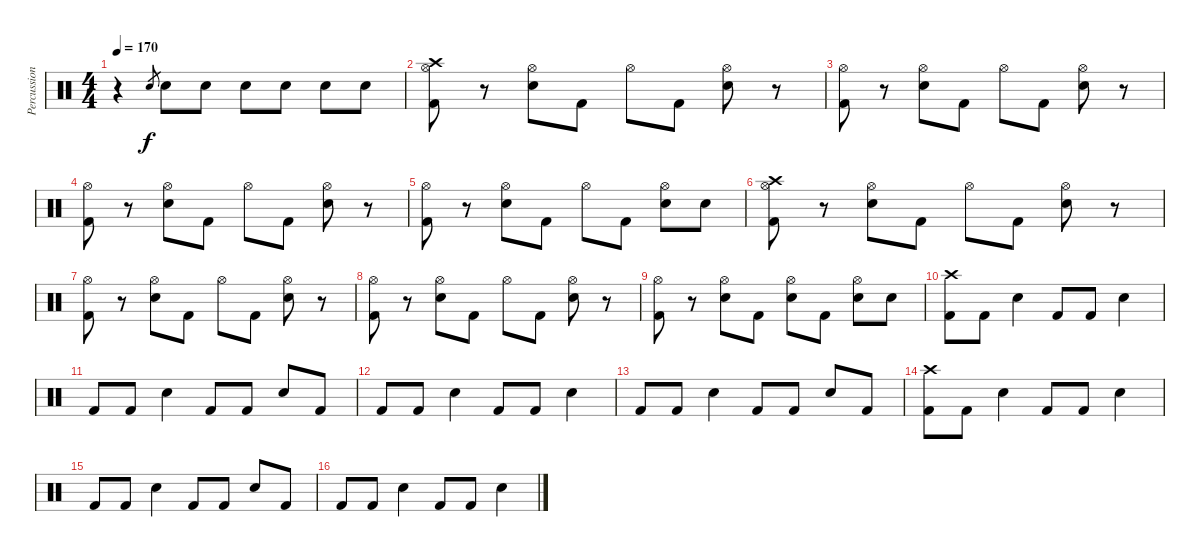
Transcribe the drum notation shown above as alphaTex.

\track ("Percussion" "Percussion") {instrument percussion}
\staff {score}
\articulation defaults
\ts (4 4)
\tempo 170
\clef neutral
\ks c
r.4{dy f} "Electric Snare (hit)".8{gr} "Electric Snare (hit)".8 "Electric Snare (hit)".8 "Electric Snare (hit)".8 "Electric Snare (hit)".8 "Electric Snare (hit)".8 "Electric Snare (hit)".8 |
("Hi-Hat (open)" "Crash high (hit)" "Kick (hit) 2").8 r.8 ("Hi-Hat (open)" "Electric Snare (hit)").8 "Kick (hit) 2".8 "Hi-Hat (open)".8 "Kick (hit) 2".8 ("Hi-Hat (open)" "Electric Snare (hit)").8 r.8 |
("Hi-Hat (open)" "Kick (hit) 2").8 r.8 ("Hi-Hat (open)" "Electric Snare (hit)").8 "Kick (hit) 2".8 "Hi-Hat (open)".8 "Kick (hit) 2".8 ("Hi-Hat (open)" "Electric Snare (hit)").8 r.8 |
("Hi-Hat (open)" "Kick (hit) 2").8 r.8 ("Hi-Hat (open)" "Electric Snare (hit)").8 "Kick (hit) 2".8 "Hi-Hat (open)".8 "Kick (hit) 2".8 ("Hi-Hat (open)" "Electric Snare (hit)").8 r.8 |
("Hi-Hat (open)" "Kick (hit) 2").8 r.8 ("Hi-Hat (open)" "Electric Snare (hit)").8 "Kick (hit) 2".8 "Hi-Hat (open)".8 "Kick (hit) 2".8 ("Hi-Hat (open)" "Electric Snare (hit)").8 "Electric Snare (hit)".8 |
("Hi-Hat (open)" "Crash high (hit)" "Kick (hit) 2").8 r.8 ("Hi-Hat (open)" "Electric Snare (hit)").8 "Kick (hit) 2".8 "Hi-Hat (open)".8 "Kick (hit) 2".8 ("Hi-Hat (open)" "Electric Snare (hit)").8 r.8 |
("Hi-Hat (open)" "Kick (hit) 2").8 r.8 ("Hi-Hat (open)" "Electric Snare (hit)").8 "Kick (hit) 2".8 "Hi-Hat (open)".8 "Kick (hit) 2".8 ("Hi-Hat (open)" "Electric Snare (hit)").8 r.8 |
("Hi-Hat (open)" "Kick (hit) 2").8 r.8 ("Hi-Hat (open)" "Electric Snare (hit)").8 "Kick (hit) 2".8 "Hi-Hat (open)".8 "Kick (hit) 2".8 ("Hi-Hat (open)" "Electric Snare (hit)").8 r.8 |
("Hi-Hat (open)" "Kick (hit) 2").8 r.8 ("Hi-Hat (open)" "Electric Snare (hit)").8 "Kick (hit) 2".8 ("Hi-Hat (open)" "Electric Snare (hit)").8 "Kick (hit) 2".8 ("Hi-Hat (open)" "Electric Snare (hit)").8 "Electric Snare (hit)".8 |
("Crash high (hit)" "Kick (hit) 2").8 "Kick (hit) 2".8 "Electric Snare (hit)".4 "Kick (hit) 2".8 "Kick (hit) 2".8 "Electric Snare (hit)".4 |
"Kick (hit) 2".8 "Kick (hit) 2".8 "Electric Snare (hit)".4 "Kick (hit) 2".8 "Kick (hit) 2".8 "Electric Snare (hit)".8 "Kick (hit) 2".8 |
"Kick (hit) 2".8 "Kick (hit) 2".8 "Electric Snare (hit)".4 "Kick (hit) 2".8 "Kick (hit) 2".8 "Electric Snare (hit)".4 |
"Kick (hit) 2".8 "Kick (hit) 2".8 "Electric Snare (hit)".4 "Kick (hit) 2".8 "Kick (hit) 2".8 "Electric Snare (hit)".8 "Kick (hit) 2".8 |
("Crash high (hit)" "Kick (hit) 2").8 "Kick (hit) 2".8 "Electric Snare (hit)".4 "Kick (hit) 2".8 "Kick (hit) 2".8 "Electric Snare (hit)".4 |
"Kick (hit) 2".8 "Kick (hit) 2".8 "Electric Snare (hit)".4 "Kick (hit) 2".8 "Kick (hit) 2".8 "Electric Snare (hit)".8 "Kick (hit) 2".8 |
"Kick (hit) 2".8 "Kick (hit) 2".8 "Electric Snare (hit)".4 "Kick (hit) 2".8 "Kick (hit) 2".8 "Electric Snare (hit)".4
